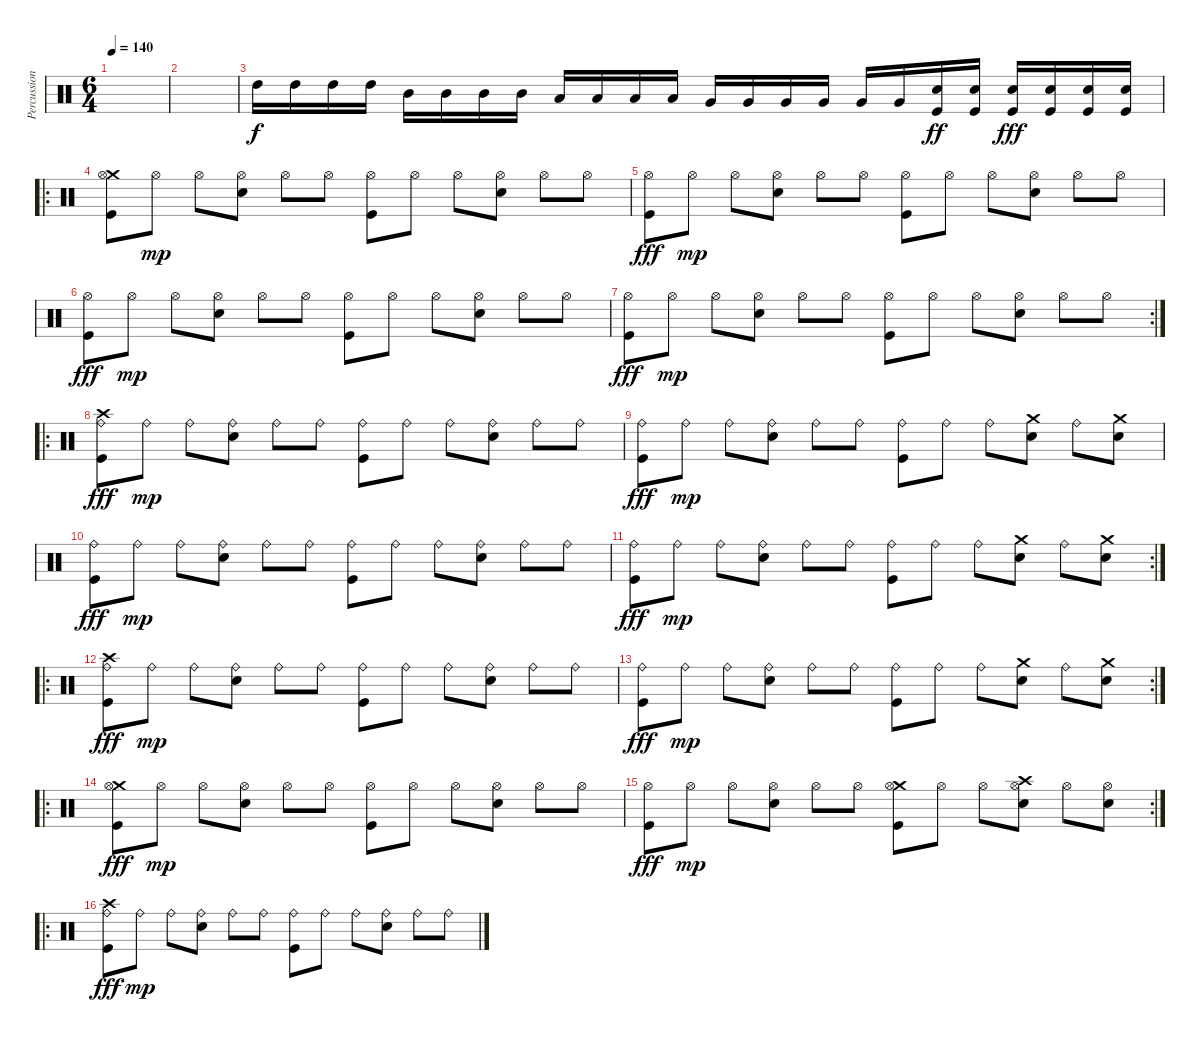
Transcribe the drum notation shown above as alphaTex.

\track ("Percussion" "Percussion") {instrument percussion}
\staff {score}
\articulation defaults
\ts (6 4)
\tempo 140
\clef neutral
\ks c
|
|
"High Tom (hit)".16 "High Tom (hit)".16 "High Tom (hit)".16 "High Tom (hit)".16 "Mid Tom (hit)".16 "Mid Tom (hit)".16 "Mid Tom (hit)".16 "Mid Tom (hit)".16 "Low Tom (hit)".16 "Low Tom (hit)".16 "Low Tom (hit)".16 "Low Tom (hit)".16 "Very Low Tom (hit)".16 "Very Low Tom (hit)".16 "Very Low Tom (hit)".16 "Very Low Tom (hit)".16 "Very Low Tom (hit)".16 "Very Low Tom (hit)".16 ("Kick (hit)" "Snare (hit) 2").16{dy ff} ("Kick (hit)" "Snare (hit) 2").16 ("Kick (hit)" "Snare (hit) 2").16{dy fff} ("Kick (hit)" "Snare (hit) 2").16 ("Kick (hit)" "Snare (hit) 2").16 ("Kick (hit)" "Snare (hit) 2").16 |
\ro
("Crash medium (hit)" "Hi-Hat (open)" "Kick (hit)").8 "Hi-Hat (open)".8{dy mp} "Hi-Hat (open)".8 ("Hi-Hat (open)" "Snare (hit) 2").8 "Hi-Hat (open)".8 "Hi-Hat (open)".8 ("Hi-Hat (open)" "Kick (hit)").8 "Hi-Hat (open)".8 "Hi-Hat (open)".8 ("Hi-Hat (open)" "Snare (hit) 2").8 "Hi-Hat (open)".8 "Hi-Hat (open)".8 |
("Hi-Hat (open)" "Kick (hit)").8{dy fff} "Hi-Hat (open)".8{dy mp} "Hi-Hat (open)".8 ("Hi-Hat (open)" "Snare (hit) 2").8 "Hi-Hat (open)".8 "Hi-Hat (open)".8 ("Hi-Hat (open)" "Kick (hit)").8 "Hi-Hat (open)".8 "Hi-Hat (open)".8 ("Hi-Hat (open)" "Snare (hit) 2").8 "Hi-Hat (open)".8 "Hi-Hat (open)".8 |
("Hi-Hat (open)" "Kick (hit)").8{dy fff} "Hi-Hat (open)".8{dy mp} "Hi-Hat (open)".8 ("Hi-Hat (open)" "Snare (hit) 2").8 "Hi-Hat (open)".8 "Hi-Hat (open)".8 ("Hi-Hat (open)" "Kick (hit)").8 "Hi-Hat (open)".8 "Hi-Hat (open)".8 ("Hi-Hat (open)" "Snare (hit) 2").8 "Hi-Hat (open)".8 "Hi-Hat (open)".8 |
\rc 2
("Hi-Hat (open)" "Kick (hit)").8{dy fff} "Hi-Hat (open)".8{dy mp} "Hi-Hat (open)".8 ("Hi-Hat (open)" "Snare (hit) 2").8 "Hi-Hat (open)".8 "Hi-Hat (open)".8 ("Hi-Hat (open)" "Kick (hit)").8 "Hi-Hat (open)".8 "Hi-Hat (open)".8 ("Hi-Hat (open)" "Snare (hit) 2").8 "Hi-Hat (open)".8 "Hi-Hat (open)".8 |
\ro
("Crash high (hit)" "Ride (bell)" "Kick (hit)").8{dy fff} "Ride (bell)".8{dy mp} "Ride (bell)".8 ("Ride (bell)" "Snare (hit) 2").8 "Ride (bell)".8 "Ride (bell)".8 ("Ride (bell)" "Kick (hit)").8 "Ride (bell)".8 "Ride (bell)".8 ("Ride (bell)" "Snare (hit) 2").8 "Ride (bell)".8 "Ride (bell)".8 |
("Ride (bell)" "Kick (hit)").8{dy fff} "Ride (bell)".8{dy mp} "Ride (bell)".8 ("Ride (bell)" "Snare (hit) 2").8 "Ride (bell)".8 "Ride (bell)".8 ("Ride (bell)" "Kick (hit)").8 "Ride (bell)".8 "Ride (bell)".8 ("Crash medium (hit)" "Snare (hit) 2").8 "Ride (bell)".8 ("Crash medium (hit)" "Snare (hit) 2").8 |
("Ride (bell)" "Kick (hit)").8{dy fff} "Ride (bell)".8{dy mp} "Ride (bell)".8 ("Ride (bell)" "Snare (hit) 2").8 "Ride (bell)".8 "Ride (bell)".8 ("Ride (bell)" "Kick (hit)").8 "Ride (bell)".8 "Ride (bell)".8 ("Ride (bell)" "Snare (hit) 2").8 "Ride (bell)".8 "Ride (bell)".8 |
\rc 2
("Ride (bell)" "Kick (hit)").8{dy fff} "Ride (bell)".8{dy mp} "Ride (bell)".8 ("Ride (bell)" "Snare (hit) 2").8 "Ride (bell)".8 "Ride (bell)".8 ("Ride (bell)" "Kick (hit)").8 "Ride (bell)".8 "Ride (bell)".8 ("Crash medium (hit)" "Snare (hit) 2").8 "Ride (bell)".8 ("Crash medium (hit)" "Snare (hit) 2").8 |
\ro
("Crash high (hit)" "Ride (bell)" "Kick (hit)").8{dy fff} "Ride (bell)".8{dy mp} "Ride (bell)".8 ("Ride (bell)" "Snare (hit) 2").8 "Ride (bell)".8 "Ride (bell)".8 ("Ride (bell)" "Kick (hit)").8 "Ride (bell)".8 "Ride (bell)".8 ("Ride (bell)" "Snare (hit) 2").8 "Ride (bell)".8 "Ride (bell)".8 |
\rc 2
("Ride (bell)" "Kick (hit)").8{dy fff} "Ride (bell)".8{dy mp} "Ride (bell)".8 ("Ride (bell)" "Snare (hit) 2").8 "Ride (bell)".8 "Ride (bell)".8 ("Ride (bell)" "Kick (hit)").8 "Ride (bell)".8 "Ride (bell)".8 ("Crash medium (hit)" "Snare (hit) 2").8 "Ride (bell)".8 ("Crash medium (hit)" "Snare (hit) 2").8 |
\ro
("Crash medium (hit)" "Hi-Hat (open)" "Kick (hit)").8{dy fff} "Hi-Hat (open)".8{dy mp} "Hi-Hat (open)".8 ("Hi-Hat (open)" "Snare (hit) 2").8 "Hi-Hat (open)".8 "Hi-Hat (open)".8 ("Hi-Hat (open)" "Kick (hit)").8 "Hi-Hat (open)".8 "Hi-Hat (open)".8 ("Hi-Hat (open)" "Snare (hit) 2").8 "Hi-Hat (open)".8 "Hi-Hat (open)".8 |
\rc 2
("Hi-Hat (open)" "Kick (hit)").8{dy fff} "Hi-Hat (open)".8{dy mp} "Hi-Hat (open)".8 ("Hi-Hat (open)" "Snare (hit) 2").8 "Hi-Hat (open)".8 "Hi-Hat (open)".8 ("Crash medium (hit)" "Hi-Hat (open)" "Kick (hit)").8 "Hi-Hat (open)".8 "Hi-Hat (open)".8 ("Crash high (hit)" "Hi-Hat (open)" "Snare (hit) 2").8 "Hi-Hat (open)".8 ("Hi-Hat (open)" "Snare (hit) 2").8 |
\ro
("Crash high (hit)" "Ride (bell)" "Kick (hit)").8{dy fff} "Ride (bell)".8{dy mp} "Ride (bell)".8 ("Ride (bell)" "Snare (hit) 2").8 "Ride (bell)".8 "Ride (bell)".8 ("Ride (bell)" "Kick (hit)").8 "Ride (bell)".8 "Ride (bell)".8 ("Ride (bell)" "Snare (hit) 2").8 "Ride (bell)".8 "Ride (bell)".8
